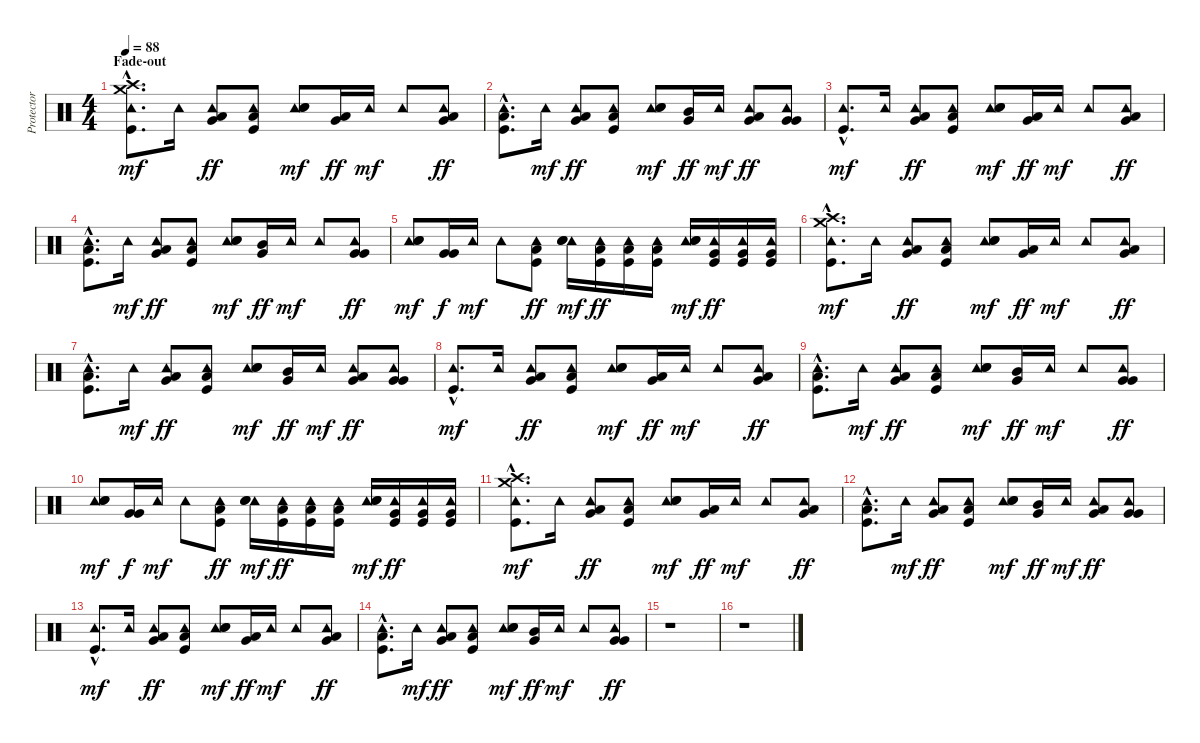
\track ("Protector (Drums)" "Protector ") {instrument percussion}
\staff {score}
\articulation defaults
\ts (4 4)
\section ("" "Fade-out")
\tempo 88
\clef neutral
\ks c
("Crash high (hit)"{hac} "Crash medium (hit)"{hac} "Tambourine (hit)"{hac} "Kick (hit)"{hac}).8{d dy mf volume 12} "Tambourine (hit)".16 ("Tambourine (hit)" "Low Tom (hit)" "Very Low Tom (hit)").8{bu 120 dy ff} ("Tambourine (hit)" "Low Floor Tom (hit)" "Kick (hit)").8 ("Tambourine (hit)" "Electric Snare (hit)" "Snare (hit) 2").8{dy mf} ("Low Tom (hit)" "Very Low Tom (hit)").16{bu 120 dy ff} "Tambourine (hit)".16{dy mf} "Tambourine (hit)".8 ("Tambourine (hit)" "Low Tom (hit)" "Very Low Tom (hit)").8{bu 120 dy ff} |
("Tambourine (hit)"{hac} "Low Floor Tom (hit)"{hac} "Kick (hit)"{hac}).8{d} "Tambourine (hit)".16{dy mf} ("Tambourine (hit)" "Low Tom (hit)" "Very Low Tom (hit)").8{bu 120 dy ff} ("Tambourine (hit)" "Low Floor Tom (hit)" "Kick (hit)").8 ("Tambourine (hit)" "Electric Snare (hit)" "Snare (hit) 2").8{dy mf} ("Mid Tom (hit)" "Very Low Tom (hit)").16{bu 120 dy ff} "Tambourine (hit)".16{dy mf} ("Tambourine (hit)" "Low Tom (hit)" "Very Low Tom (hit)").8{bu 120 dy ff} ("Tambourine (hit)" "Very Low Tom (hit)" "Very Low Tom (hit)").8{bu 120} |
("Tambourine (hit)"{hac} "Kick (hit)"{hac}).8{d dy mf volume 10} "Tambourine (hit)".16 ("Tambourine (hit)" "Low Tom (hit)" "Very Low Tom (hit)").8{bu 120 dy ff} ("Tambourine (hit)" "Low Floor Tom (hit)" "Kick (hit)").8 ("Tambourine (hit)" "Electric Snare (hit)" "Snare (hit) 2").8{dy mf} ("Low Tom (hit)" "Very Low Tom (hit)").16{bu 120 dy ff} "Tambourine (hit)".16{dy mf} "Tambourine (hit)".8 ("Tambourine (hit)" "Low Tom (hit)" "Very Low Tom (hit)").8{bu 120 dy ff} |
("Tambourine (hit)"{hac} "Low Floor Tom (hit)"{hac} "Kick (hit)"{hac}).8{d} "Tambourine (hit)".16{dy mf} ("Tambourine (hit)" "Low Tom (hit)" "Very Low Tom (hit)").8{bu 120 dy ff} ("Tambourine (hit)" "Low Floor Tom (hit)" "Kick (hit)").8 ("Tambourine (hit)" "Electric Snare (hit)" "Snare (hit) 2").8{dy mf} ("Mid Tom (hit)" "Very Low Tom (hit)").16{bu 120 dy ff} "Tambourine (hit)".16{dy mf} "Tambourine (hit)".8{bu 120} ("Tambourine (hit)" "Very Low Tom (hit)" "Very Low Tom (hit)").8{bu 120 dy ff} |
("Tambourine (hit)" "Electric Snare (hit)" "Snare (hit) 2").8{dy mf volume 8} ("Very Low Tom (hit)" "Very Low Tom (hit)").16{bu 120 dy f} "Tambourine (hit)".16{dy mf} "Tambourine (hit)".8{bu 120} ("Tambourine (hit)" "Low Floor Tom (hit)" "Kick (hit)").8{dy ff} ("Tambourine (hit)" "Electric Snare (hit)" "Snare (hit) 2").16{dy mf} ("Tambourine (hit)" "Low Tom (hit)" "Kick (hit)").16{dy ff} ("Tambourine (hit)" "Low Tom (hit)" "Kick (hit)").16 ("Tambourine (hit)" "Low Tom (hit)" "Kick (hit)").16 ("Tambourine (hit)" "Electric Snare (hit)" "Snare (hit) 2").16{dy mf} ("Tambourine (hit)" "Very Low Tom (hit)" "Kick (hit)").16{dy ff} ("Tambourine (hit)" "Very Low Tom (hit)" "Kick (hit)").16 ("Tambourine (hit)" "Very Low Tom (hit)" "Kick (hit)").16 |
("Crash high (hit)"{hac} "Crash medium (hit)"{hac} "Tambourine (hit)"{hac} "Kick (hit)"{hac}).8{d dy mf} "Tambourine (hit)".16 ("Tambourine (hit)" "Low Tom (hit)" "Very Low Tom (hit)").8{bu 120 dy ff} ("Tambourine (hit)" "Low Floor Tom (hit)" "Kick (hit)").8 ("Tambourine (hit)" "Electric Snare (hit)" "Snare (hit) 2").8{dy mf} ("Low Tom (hit)" "Very Low Tom (hit)").16{bu 120 dy ff} "Tambourine (hit)".16{dy mf} "Tambourine (hit)".8 ("Tambourine (hit)" "Low Tom (hit)" "Very Low Tom (hit)").8{bu 120 dy ff} |
("Tambourine (hit)"{hac} "Low Floor Tom (hit)"{hac} "Kick (hit)"{hac}).8{d volume 7} "Tambourine (hit)".16{dy mf} ("Tambourine (hit)" "Low Tom (hit)" "Very Low Tom (hit)").8{bu 120 dy ff} ("Tambourine (hit)" "Low Floor Tom (hit)" "Kick (hit)").8 ("Tambourine (hit)" "Electric Snare (hit)" "Snare (hit) 2").8{dy mf} ("Mid Tom (hit)" "Very Low Tom (hit)").16{bu 120 dy ff} "Tambourine (hit)".16{dy mf} ("Tambourine (hit)" "Low Tom (hit)" "Very Low Tom (hit)").8{bu 120 dy ff} ("Tambourine (hit)" "Very Low Tom (hit)" "Very Low Tom (hit)").8{bu 120} |
("Tambourine (hit)"{hac} "Kick (hit)"{hac}).8{d dy mf} "Tambourine (hit)".16 ("Tambourine (hit)" "Low Tom (hit)" "Very Low Tom (hit)").8{bu 120 dy ff} ("Tambourine (hit)" "Low Floor Tom (hit)" "Kick (hit)").8 ("Tambourine (hit)" "Electric Snare (hit)" "Snare (hit) 2").8{dy mf} ("Low Tom (hit)" "Very Low Tom (hit)").16{bu 120 dy ff} "Tambourine (hit)".16{dy mf} "Tambourine (hit)".8 ("Tambourine (hit)" "Low Tom (hit)" "Very Low Tom (hit)").8{bu 120 dy ff} |
("Tambourine (hit)"{hac} "Low Floor Tom (hit)"{hac} "Kick (hit)"{hac}).8{d volume 6} "Tambourine (hit)".16{dy mf} ("Tambourine (hit)" "Low Tom (hit)" "Very Low Tom (hit)").8{bu 120 dy ff} ("Tambourine (hit)" "Low Floor Tom (hit)" "Kick (hit)").8 ("Tambourine (hit)" "Electric Snare (hit)" "Snare (hit) 2").8{dy mf} ("Mid Tom (hit)" "Very Low Tom (hit)").16{bu 120 dy ff} "Tambourine (hit)".16{dy mf} "Tambourine (hit)".8{bu 120} ("Tambourine (hit)" "Very Low Tom (hit)" "Very Low Tom (hit)").8{bu 120 dy ff} |
("Tambourine (hit)" "Electric Snare (hit)" "Snare (hit) 2").8{dy mf} ("Very Low Tom (hit)" "Very Low Tom (hit)").16{bu 120 dy f} "Tambourine (hit)".16{dy mf} "Tambourine (hit)".8{bu 120} ("Tambourine (hit)" "Low Floor Tom (hit)" "Kick (hit)").8{dy ff} ("Tambourine (hit)" "Electric Snare (hit)" "Snare (hit) 2").16{dy mf} ("Tambourine (hit)" "Low Tom (hit)" "Kick (hit)").16{dy ff} ("Tambourine (hit)" "Low Tom (hit)" "Kick (hit)").16 ("Tambourine (hit)" "Low Tom (hit)" "Kick (hit)").16 ("Tambourine (hit)" "Electric Snare (hit)" "Snare (hit) 2").16{dy mf} ("Tambourine (hit)" "Very Low Tom (hit)" "Kick (hit)").16{dy ff} ("Tambourine (hit)" "Very Low Tom (hit)" "Kick (hit)").16 ("Tambourine (hit)" "Very Low Tom (hit)" "Kick (hit)").16 |
("Crash high (hit)"{hac} "Crash medium (hit)"{hac} "Tambourine (hit)"{hac} "Kick (hit)"{hac}).8{d dy mf volume 4} "Tambourine (hit)".16 ("Tambourine (hit)" "Low Tom (hit)" "Very Low Tom (hit)").8{bu 120 dy ff} ("Tambourine (hit)" "Low Floor Tom (hit)" "Kick (hit)").8 ("Tambourine (hit)" "Electric Snare (hit)" "Snare (hit) 2").8{dy mf} ("Low Tom (hit)" "Very Low Tom (hit)").16{bu 120 dy ff} "Tambourine (hit)".16{dy mf} "Tambourine (hit)".8 ("Tambourine (hit)" "Low Tom (hit)" "Very Low Tom (hit)").8{bu 120 dy ff} |
("Tambourine (hit)"{hac} "Low Floor Tom (hit)"{hac} "Kick (hit)"{hac}).8{d} "Tambourine (hit)".16{dy mf} ("Tambourine (hit)" "Low Tom (hit)" "Very Low Tom (hit)").8{bu 120 dy ff} ("Tambourine (hit)" "Low Floor Tom (hit)" "Kick (hit)").8 ("Tambourine (hit)" "Electric Snare (hit)" "Snare (hit) 2").8{dy mf} ("Mid Tom (hit)" "Very Low Tom (hit)").16{bu 120 dy ff} "Tambourine (hit)".16{dy mf} ("Tambourine (hit)" "Low Tom (hit)" "Very Low Tom (hit)").8{bu 120 dy ff} ("Tambourine (hit)" "Very Low Tom (hit)" "Very Low Tom (hit)").8{bu 120} |
("Tambourine (hit)"{hac} "Kick (hit)"{hac}).8{d dy mf volume 0} "Tambourine (hit)".16 ("Tambourine (hit)" "Low Tom (hit)" "Very Low Tom (hit)").8{bu 120 dy ff} ("Tambourine (hit)" "Low Floor Tom (hit)" "Kick (hit)").8 ("Tambourine (hit)" "Electric Snare (hit)" "Snare (hit) 2").8{dy mf} ("Low Tom (hit)" "Very Low Tom (hit)").16{bu 120 dy ff} "Tambourine (hit)".16{dy mf} "Tambourine (hit)".8 ("Tambourine (hit)" "Low Tom (hit)" "Very Low Tom (hit)").8{bu 120 dy ff} |
("Tambourine (hit)"{hac} "Low Floor Tom (hit)"{hac} "Kick (hit)"{hac}).8{d} "Tambourine (hit)".16{dy mf} ("Tambourine (hit)" "Low Tom (hit)" "Very Low Tom (hit)").8{bu 120 dy ff} ("Tambourine (hit)" "Low Floor Tom (hit)" "Kick (hit)").8 ("Tambourine (hit)" "Electric Snare (hit)" "Snare (hit) 2").8{dy mf} ("Mid Tom (hit)" "Very Low Tom (hit)").16{bu 120 dy ff} "Tambourine (hit)".16{dy mf} "Tambourine (hit)".8{bu 120} ("Tambourine (hit)" "Very Low Tom (hit)" "Very Low Tom (hit)").8{bu 120 dy ff} |
r.1 |
r.1{volume 14}
